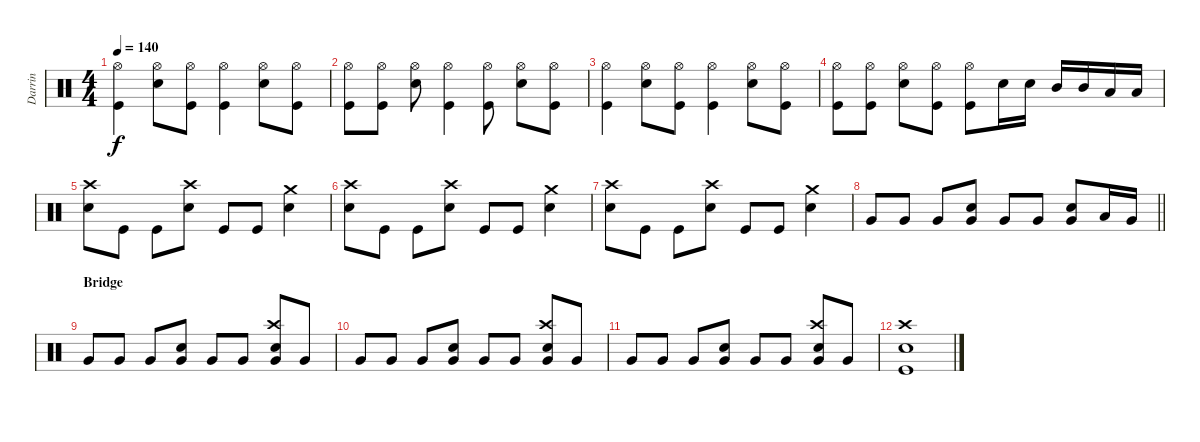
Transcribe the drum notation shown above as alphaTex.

\track ("Darrin" "Darrin") {instrument percussion}
\staff {score}
\articulation defaults
\ts (4 4)
\tempo 140
\clef neutral
\ks c
("Hi-Hat (open)" "Kick (hit)").4{dy f} ("Hi-Hat (open)" "Snare (hit) 2").8 ("Hi-Hat (open)" "Kick (hit)").8 ("Hi-Hat (open)" "Kick (hit)").4 ("Hi-Hat (open)" "Snare (hit) 2").8 ("Hi-Hat (open)" "Kick (hit)").8 |
("Hi-Hat (open)" "Kick (hit)").8 ("Hi-Hat (open)" "Kick (hit)").8 ("Hi-Hat (open)" "Snare (hit) 2").8 ("Hi-Hat (open)" "Kick (hit)").4 ("Hi-Hat (open)" "Kick (hit)").8 ("Hi-Hat (open)" "Snare (hit) 2").8 ("Hi-Hat (open)" "Kick (hit)").8 |
("Hi-Hat (open)" "Kick (hit)").4 ("Hi-Hat (open)" "Snare (hit) 2").8 ("Hi-Hat (open)" "Kick (hit)").8 ("Hi-Hat (open)" "Kick (hit)").4 ("Hi-Hat (open)" "Snare (hit) 2").8 ("Hi-Hat (open)" "Kick (hit)").8 |
("Hi-Hat (open)" "Kick (hit)").8 ("Hi-Hat (open)" "Kick (hit)").8 ("Hi-Hat (open)" "Snare (hit) 2").8 ("Hi-Hat (open)" "Kick (hit)").8 ("Hi-Hat (open)" "Kick (hit)").8 "Snare (hit) 2".16 "Snare (hit) 2".16 "Mid Tom (hit)".16 "Mid Tom (hit)".16 "Low Tom (hit)".16 "Low Tom (hit)".16 |
("Crash high (hit)" "Snare (hit) 2").8 "Kick (hit)".8 "Kick (hit)".8 ("Crash high (hit)" "Snare (hit) 2").8 "Kick (hit)".8 "Kick (hit)".8 ("Crash medium (hit)" "Snare (hit) 2").4 |
("Crash high (hit)" "Snare (hit) 2").8 "Kick (hit)".8 "Kick (hit)".8 ("Crash high (hit)" "Snare (hit) 2").8 "Kick (hit)".8 "Kick (hit)".8 ("Crash medium (hit)" "Snare (hit) 2").4 |
("Crash high (hit)" "Snare (hit) 2").8 "Kick (hit)".8 "Kick (hit)".8 ("Crash high (hit)" "Snare (hit) 2").8 "Kick (hit)".8 "Kick (hit)".8 ("Crash medium (hit)" "Snare (hit) 2").4 |
\barLineRight lightlight "Very Low Tom (hit)".8 "Very Low Tom (hit)".8 "Very Low Tom (hit)".8
("Snare (hit) 2" "Very Low Tom (hit)").8 "Very Low Tom (hit)".8 "Very Low Tom (hit)".8 ("Snare (hit) 2" "Very Low Tom (hit)").8 "Low Tom (hit)".16 "Very Low Tom (hit)".16 |
\section ("" "Bridge")
"Very Low Tom (hit)".8 "Very Low Tom (hit)".8 "Very Low Tom (hit)".8 ("Snare (hit) 2" "Very Low Tom (hit)").8 "Very Low Tom (hit)".8 "Very Low Tom (hit)".8 ("Crash high (hit)" "Snare (hit) 2" "Very Low Tom (hit)").8 "Very Low Tom (hit)".8 |
"Very Low Tom (hit)".8 "Very Low Tom (hit)".8 "Very Low Tom (hit)".8 ("Snare (hit) 2" "Very Low Tom (hit)").8 "Very Low Tom (hit)".8 "Very Low Tom (hit)".8 ("Crash high (hit)" "Snare (hit) 2" "Very Low Tom (hit)").8 "Very Low Tom (hit)".8 |
"Very Low Tom (hit)".8 "Very Low Tom (hit)".8 "Very Low Tom (hit)".8 ("Snare (hit) 2" "Very Low Tom (hit)").8 "Very Low Tom (hit)".8 "Very Low Tom (hit)".8 ("Crash high (hit)" "Snare (hit) 2" "Very Low Tom (hit)").8 "Very Low Tom (hit)".8 |
("Crash high (hit)" "Snare (hit) 2" "Kick (hit)").1
